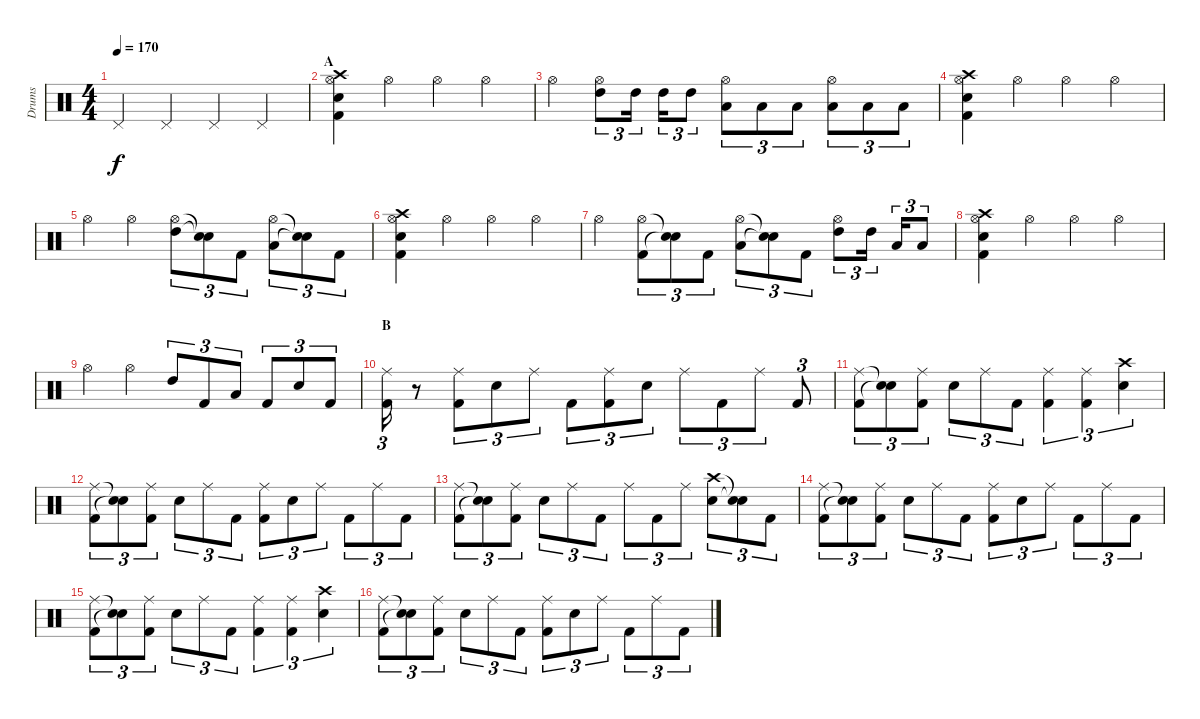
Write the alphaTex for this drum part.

\track ("Drums" "Drums") {instrument percussion}
\staff {score}
\articulation defaults
\ts (4 4)
\tempo 170
\clef neutral
\ks c "Pedal Hi-Hat (hit)".4{dy f} "Pedal Hi-Hat (hit)".4 "Pedal Hi-Hat (hit)".4 "Pedal Hi-Hat (hit)".4
|
\section ("" "A")
("Crash high (hit)" "Hi-Hat (open)" "Snare (hit) 2" "Kick (hit) 2").4 "Hi-Hat (open)".4 "Hi-Hat (open)".4 "Hi-Hat (open)".4 |
"Hi-Hat (open)".4 ("Hi-Hat (open)" "High Tom (hit)").8{tu (3 2)} "High Tom (hit)".16{tu (3 2)} "High Tom (hit)".16{tu (3 2)} "High Tom (hit)".8{tu (3 2)} ("Hi-Hat (open)" "Low Tom (hit)").8{tu (3 2)} "Low Tom (hit)".8{tu (3 2)} "Low Tom (hit)".8{tu (3 2)} ("Hi-Hat (open)" "Low Floor Tom (hit)").8{tu (3 2)} "Low Floor Tom (hit)".8{tu (3 2)} "Low Floor Tom (hit)".8{tu (3 2)} |
("Crash high (hit)" "Hi-Hat (open)" "Snare (hit) 2" "Kick (hit) 2").4 "Hi-Hat (open)".4 "Hi-Hat (open)".4 "Hi-Hat (open)".4 |
"Hi-Hat (open)".4 "Hi-Hat (open)".4 ("Hi-Hat (open)" "High Tom (hit)").8{tu (3 2)} ("Snare (hit)"{t} "Snare (hit)"{t}).8{tu (3 2)} "Kick (hit) 2".8{tu (3 2)} ("Hi-Hat (open)" "Low Tom (hit)").8{tu (3 2)} ("Snare (hit)"{t} "Snare (hit)"{t}).8{tu (3 2)} "Kick (hit) 2".8{tu (3 2)} |
("Crash high (hit)" "Hi-Hat (open)" "Snare (hit) 2" "Kick (hit) 2").4 "Hi-Hat (open)".4 "Hi-Hat (open)".4 "Hi-Hat (open)".4 |
"Hi-Hat (open)".4 ("Hi-Hat (open)" "Kick (hit) 2").8{tu (3 2)} ("Snare (hit)"{t} "Snare (hit)"{t}).8{tu (3 2)} "Kick (hit) 2".8{tu (3 2)} ("Hi-Hat (open)" "Low Tom (hit)").8{tu (3 2)} ("Snare (hit)"{t} "Snare (hit)"{t}).8{tu (3 2)} "Kick (hit) 2".8{tu (3 2)} ("Hi-Hat (open)" "High Tom (hit)").8{tu (3 2)} "High Tom (hit)".16{tu (3 2)} "Low Tom (hit)".16{tu (3 2)} "Low Floor Tom (hit)".8{tu (3 2)} |
("Crash high (hit)" "Hi-Hat (open)" "Snare (hit) 2" "Kick (hit) 2").4 "Hi-Hat (open)".4 "Hi-Hat (open)".4 "Hi-Hat (open)".4 |
"Hi-Hat (open)".4 "Hi-Hat (open)".4 "High Tom (hit)".8{tu (3 2)} "Kick (hit) 2".8{tu (3 2)} "Low Tom (hit)".8{tu (3 2)} "Kick (hit) 2".8{tu (3 2)} "Snare (hit) 2".8{tu (3 2)} "Kick (hit) 2".8{tu (3 2)} |
\section ("" "B")
("Kick (hit) 2" "Ride (middle)").16{tu (3 2)} r.8 ("Ride (middle)" "Kick (hit) 2").8{tu (3 2)} "Snare (hit) 2".8{tu (3 2)} "Ride (middle)".8{tu (3 2)} "Kick (hit) 2".8{tu (3 2)} ("Ride (middle)" "Kick (hit) 2").8{tu (3 2)} "Snare (hit) 2".8{tu (3 2)} "Ride (middle)".8{tu (3 2)} "Kick (hit) 2".8{tu (3 2)} "Ride (middle)".8{tu (3 2)} "Kick (hit) 2".8{tu (3 2)} |
("Ride (middle)" "Kick (hit) 2").8{tu (3 2)} ("Snare (hit)"{t} "Snare (hit)"{t}).8{tu (3 2)} ("Ride (middle)" "Kick (hit) 2").8{tu (3 2)} "Snare (hit) 2".8{tu (3 2)} "Ride (middle)".8{tu (3 2)} "Kick (hit) 2".8{tu (3 2)} ("Ride (middle)" "Kick (hit) 2").4{tu (3 2)} ("Ride (middle)" "Kick (hit) 2").4{tu (3 2)} ("Crash high (hit)" "Snare (hit) 2").4{tu (3 2)} |
("Ride (middle)" "Kick (hit) 2").8{tu (3 2)} ("Snare (hit)"{t} "Snare (hit)"{t}).8{tu (3 2)} ("Ride (middle)" "Kick (hit) 2").8{tu (3 2)} "Snare (hit) 2".8{tu (3 2)} "Ride (middle)".8{tu (3 2)} "Kick (hit) 2".8{tu (3 2)} ("Ride (middle)" "Kick (hit) 2").8{tu (3 2)} "Snare (hit) 2".8{tu (3 2)} "Ride (middle)".8{tu (3 2)} "Kick (hit) 2".8{tu (3 2)} "Ride (middle)".8{tu (3 2)} "Kick (hit) 2".8{tu (3 2)} |
("Ride (middle)" "Kick (hit) 2").8{tu (3 2)} ("Snare (hit)"{t} "Snare (hit)"{t}).8{tu (3 2)} ("Ride (middle)" "Kick (hit) 2").8{tu (3 2)} "Snare (hit) 2".8{tu (3 2)} "Ride (middle)".8{tu (3 2)} "Kick (hit) 2".8{tu (3 2)} "Ride (middle)".8{tu (3 2)} "Kick (hit) 2".8{tu (3 2)} "Ride (middle)".8{tu (3 2)} ("Crash high (hit)" "Snare (hit) 2").8{tu (3 2)} ("Snare (hit)"{t} "Snare (hit)"{t}).8{tu (3 2)} "Kick (hit) 2".8{tu (3 2)} |
("Ride (middle)" "Kick (hit) 2").8{tu (3 2)} ("Snare (hit)"{t} "Snare (hit)"{t}).8{tu (3 2)} ("Ride (middle)" "Kick (hit) 2").8{tu (3 2)} "Snare (hit) 2".8{tu (3 2)} "Ride (middle)".8{tu (3 2)} "Kick (hit) 2".8{tu (3 2)} ("Ride (middle)" "Kick (hit) 2").8{tu (3 2)} "Snare (hit) 2".8{tu (3 2)} "Ride (middle)".8{tu (3 2)} "Kick (hit) 2".8{tu (3 2)} "Ride (middle)".8{tu (3 2)} "Kick (hit) 2".8{tu (3 2)} |
("Ride (middle)" "Kick (hit) 2").8{tu (3 2)} ("Snare (hit)"{t} "Snare (hit)"{t}).8{tu (3 2)} ("Ride (middle)" "Kick (hit) 2").8{tu (3 2)} "Snare (hit) 2".8{tu (3 2)} "Ride (middle)".8{tu (3 2)} "Kick (hit) 2".8{tu (3 2)} ("Ride (middle)" "Kick (hit) 2").4{tu (3 2)} ("Ride (middle)" "Kick (hit) 2").4{tu (3 2)} ("Crash high (hit)" "Snare (hit) 2").4{tu (3 2)} |
("Ride (middle)" "Kick (hit) 2").8{tu (3 2)} ("Snare (hit)"{t} "Snare (hit)"{t}).8{tu (3 2)} ("Ride (middle)" "Kick (hit) 2").8{tu (3 2)} "Snare (hit) 2".8{tu (3 2)} "Ride (middle)".8{tu (3 2)} "Kick (hit) 2".8{tu (3 2)} ("Ride (middle)" "Kick (hit) 2").8{tu (3 2)} "Snare (hit) 2".8{tu (3 2)} "Ride (middle)".8{tu (3 2)} "Kick (hit) 2".8{tu (3 2)} "Ride (middle)".8{tu (3 2)} "Kick (hit) 2".8{tu (3 2)}
